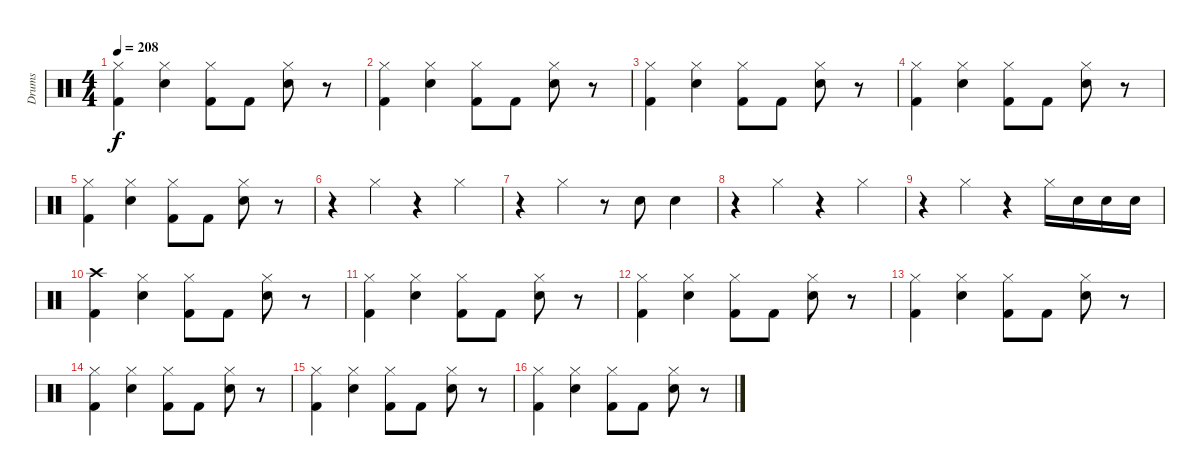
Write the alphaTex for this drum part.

\track ("Drums" "Drums") {instrument percussion}
\staff {score}
\articulation defaults
\ts (4 4)
\tempo 208
\clef neutral
\ks c
("Hi-Hat (closed)" "Kick (hit) 2").4{dy f} ("Hi-Hat (closed)" "Snare (hit) 2").4 ("Hi-Hat (closed)" "Kick (hit) 2").8 "Kick (hit) 2".8 ("Hi-Hat (closed)" "Snare (hit) 2").8 r.8 |
("Hi-Hat (closed)" "Kick (hit) 2").4 ("Hi-Hat (closed)" "Snare (hit) 2").4 ("Hi-Hat (closed)" "Kick (hit) 2").8 "Kick (hit) 2".8 ("Hi-Hat (closed)" "Snare (hit) 2").8 r.8 |
("Hi-Hat (closed)" "Kick (hit) 2").4 ("Hi-Hat (closed)" "Snare (hit) 2").4 ("Hi-Hat (closed)" "Kick (hit) 2").8 "Kick (hit) 2".8 ("Hi-Hat (closed)" "Snare (hit) 2").8 r.8 |
("Hi-Hat (closed)" "Kick (hit) 2").4 ("Hi-Hat (closed)" "Snare (hit) 2").4 ("Hi-Hat (closed)" "Kick (hit) 2").8 "Kick (hit) 2".8 ("Hi-Hat (closed)" "Snare (hit) 2").8 r.8 |
("Hi-Hat (closed)" "Kick (hit) 2").4 ("Hi-Hat (closed)" "Snare (hit) 2").4 ("Hi-Hat (closed)" "Kick (hit) 2").8 "Kick (hit) 2".8 ("Hi-Hat (closed)" "Snare (hit) 2").8 r.8 |
r.4 "Hi-Hat (closed)".4 r.4 "Hi-Hat (closed)".4 |
r.4 "Hi-Hat (closed)".4 r.8 "Snare (hit) 2".8 "Snare (hit) 2".4 |
r.4 "Hi-Hat (closed)".4 r.4 "Hi-Hat (closed)".4 |
r.4 "Hi-Hat (closed)".4 r.4 "Hi-Hat (closed)".16 "Snare (hit) 2".16 "Snare (hit) 2".16 "Snare (hit) 2".16 |
("Crash high (hit)" "Kick (hit) 2").4 ("Hi-Hat (closed)" "Snare (hit) 2").4 ("Hi-Hat (closed)" "Kick (hit) 2").8 "Kick (hit) 2".8 ("Hi-Hat (closed)" "Snare (hit) 2").8 r.8 |
("Hi-Hat (closed)" "Kick (hit) 2").4 ("Hi-Hat (closed)" "Snare (hit) 2").4 ("Hi-Hat (closed)" "Kick (hit) 2").8 "Kick (hit) 2".8 ("Hi-Hat (closed)" "Snare (hit) 2").8 r.8 |
("Hi-Hat (closed)" "Kick (hit) 2").4 ("Hi-Hat (closed)" "Snare (hit) 2").4 ("Hi-Hat (closed)" "Kick (hit) 2").8 "Kick (hit) 2".8 ("Hi-Hat (closed)" "Snare (hit) 2").8 r.8 |
("Hi-Hat (closed)" "Kick (hit) 2").4 ("Hi-Hat (closed)" "Snare (hit) 2").4 ("Hi-Hat (closed)" "Kick (hit) 2").8 "Kick (hit) 2".8 ("Hi-Hat (closed)" "Snare (hit) 2").8 r.8 |
("Hi-Hat (closed)" "Kick (hit) 2").4 ("Hi-Hat (closed)" "Snare (hit) 2").4 ("Hi-Hat (closed)" "Kick (hit) 2").8 "Kick (hit) 2".8 ("Hi-Hat (closed)" "Snare (hit) 2").8 r.8 |
("Hi-Hat (closed)" "Kick (hit) 2").4 ("Hi-Hat (closed)" "Snare (hit) 2").4 ("Hi-Hat (closed)" "Kick (hit) 2").8 "Kick (hit) 2".8 ("Hi-Hat (closed)" "Snare (hit) 2").8 r.8 |
("Hi-Hat (closed)" "Kick (hit) 2").4 ("Hi-Hat (closed)" "Snare (hit) 2").4 ("Hi-Hat (closed)" "Kick (hit) 2").8 "Kick (hit) 2".8 ("Hi-Hat (closed)" "Snare (hit) 2").8 r.8
